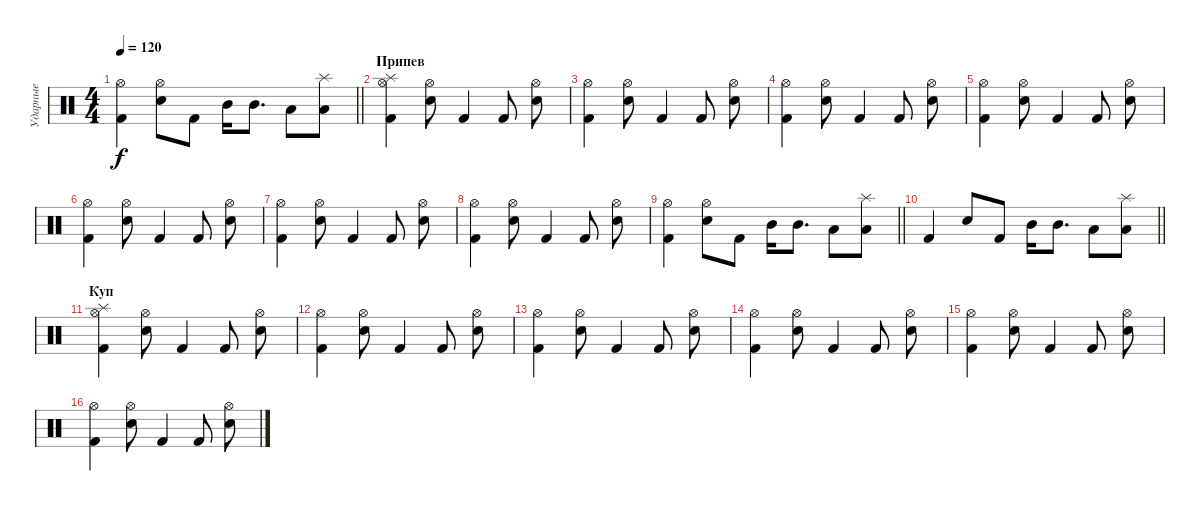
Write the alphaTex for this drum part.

\track ("Ударные" "Ударные") {instrument percussion}
\staff {score}
\articulation defaults
\ts (4 4)
\tempo 120
\clef neutral
\barLineRight lightlight
\ks c
("Kick (hit) 2" "Hi-Hat (open)").4{dy f} ("Electric Snare (hit)" "Hi-Hat (open)").8 "Kick (hit) 2".8 "Mid Tom (hit)".16 "Mid Tom (hit)".8{d} "Low Tom (hit)".8 ("Low Tom (hit)" "Splash (hit)").8 |
\section ("" "Припев")
("Kick (hit) 2" "Splash (hit)" "Hi-Hat (open)").4 ("Electric Snare (hit)" "Hi-Hat (open)").8 "Kick (hit) 2".4 "Kick (hit) 2".8 ("Electric Snare (hit)" "Hi-Hat (open)").8 |
("Kick (hit) 2" "Hi-Hat (open)").4 ("Electric Snare (hit)" "Hi-Hat (open)").8 "Kick (hit) 2".4 "Kick (hit) 2".8 ("Electric Snare (hit)" "Hi-Hat (open)").8 |
("Kick (hit) 2" "Hi-Hat (open)").4 ("Electric Snare (hit)" "Hi-Hat (open)").8 "Kick (hit) 2".4 "Kick (hit) 2".8 ("Electric Snare (hit)" "Hi-Hat (open)").8 |
("Kick (hit) 2" "Hi-Hat (open)").4 ("Electric Snare (hit)" "Hi-Hat (open)").8 "Kick (hit) 2".4 "Kick (hit) 2".8 ("Electric Snare (hit)" "Hi-Hat (open)").8 |
("Kick (hit) 2" "Hi-Hat (open)").4 ("Electric Snare (hit)" "Hi-Hat (open)").8 "Kick (hit) 2".4 "Kick (hit) 2".8 ("Electric Snare (hit)" "Hi-Hat (open)").8 |
("Kick (hit) 2" "Hi-Hat (open)").4 ("Electric Snare (hit)" "Hi-Hat (open)").8 "Kick (hit) 2".4 "Kick (hit) 2".8 ("Electric Snare (hit)" "Hi-Hat (open)").8 |
("Kick (hit) 2" "Hi-Hat (open)").4 ("Electric Snare (hit)" "Hi-Hat (open)").8 "Kick (hit) 2".4 "Kick (hit) 2".8 ("Electric Snare (hit)" "Hi-Hat (open)").8 |
\barLineRight lightlight
("Kick (hit) 2" "Hi-Hat (open)").4 ("Electric Snare (hit)" "Hi-Hat (open)").8 "Kick (hit) 2".8 "Mid Tom (hit)".16 "Mid Tom (hit)".8{d} "Low Tom (hit)".8 ("Low Tom (hit)" "Splash (hit)").8 |
\barLineRight lightlight "Kick (hit) 2".4 "Electric Snare (hit)".8 "Kick (hit) 2".8 "Mid Tom (hit)".16 "Mid Tom (hit)".8{d} "Low Tom (hit)".8
("Low Tom (hit)" "Splash (hit)").8 |
\section ("" "Куп")
("Kick (hit) 2" "Splash (hit)" "Hi-Hat (open)").4 ("Electric Snare (hit)" "Hi-Hat (open)").8 "Kick (hit) 2".4 "Kick (hit) 2".8 ("Electric Snare (hit)" "Hi-Hat (open)").8 |
("Kick (hit) 2" "Hi-Hat (open)").4 ("Electric Snare (hit)" "Hi-Hat (open)").8 "Kick (hit) 2".4 "Kick (hit) 2".8 ("Electric Snare (hit)" "Hi-Hat (open)").8 |
("Kick (hit) 2" "Hi-Hat (open)").4 ("Electric Snare (hit)" "Hi-Hat (open)").8 "Kick (hit) 2".4 "Kick (hit) 2".8 ("Electric Snare (hit)" "Hi-Hat (open)").8 |
("Kick (hit) 2" "Hi-Hat (open)").4 ("Electric Snare (hit)" "Hi-Hat (open)").8 "Kick (hit) 2".4 "Kick (hit) 2".8 ("Electric Snare (hit)" "Hi-Hat (open)").8 |
("Kick (hit) 2" "Hi-Hat (open)").4 ("Electric Snare (hit)" "Hi-Hat (open)").8 "Kick (hit) 2".4 "Kick (hit) 2".8 ("Electric Snare (hit)" "Hi-Hat (open)").8 |
("Kick (hit) 2" "Hi-Hat (open)").4 ("Electric Snare (hit)" "Hi-Hat (open)").8 "Kick (hit) 2".4 "Kick (hit) 2".8 ("Electric Snare (hit)" "Hi-Hat (open)").8
